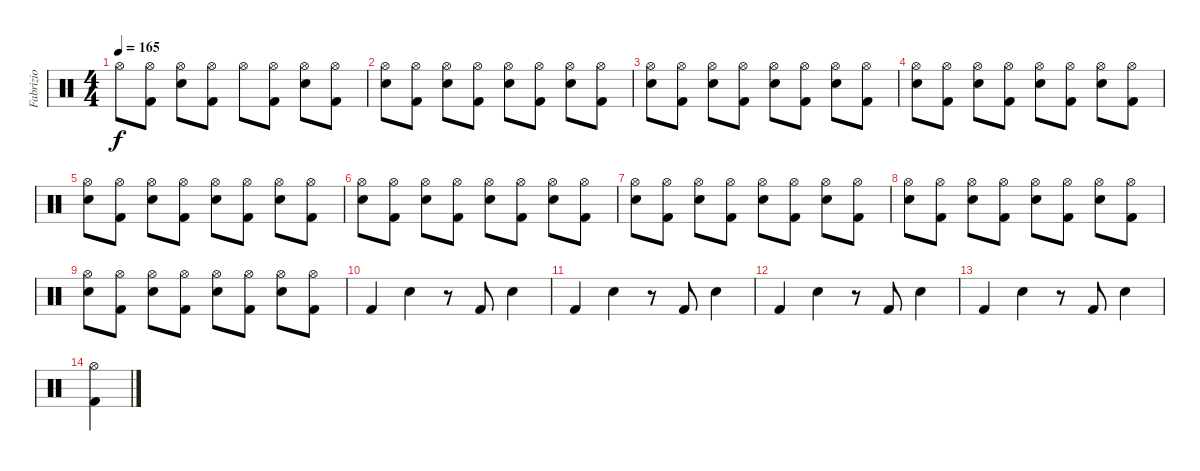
\track ("Fabrizio" "Fabrizio") {instrument percussion}
\staff {score}
\articulation defaults
\ts (4 4)
\tempo 165
\clef neutral
\ks c "Hi-Hat (open)".8{dy f}
("Hi-Hat (open)" "Kick (hit) 2").8 ("Hi-Hat (open)" "Snare (hit) 2").8 ("Hi-Hat (open)" "Kick (hit) 2").8 "Hi-Hat (open)".8 ("Hi-Hat (open)" "Kick (hit) 2").8 ("Hi-Hat (open)" "Snare (hit) 2").8 ("Hi-Hat (open)" "Kick (hit) 2").8 |
("Snare (hit) 2" "Hi-Hat (open)").8 ("Kick (hit) 2" "Hi-Hat (open)").8 ("Snare (hit) 2" "Hi-Hat (open)").8 ("Kick (hit) 2" "Hi-Hat (open)").8 ("Hi-Hat (open)" "Snare (hit) 2").8 ("Hi-Hat (open)" "Kick (hit) 2").8 ("Hi-Hat (open)" "Snare (hit) 2").8 ("Hi-Hat (open)" "Kick (hit) 2").8 |
("Hi-Hat (open)" "Snare (hit) 2").8 ("Hi-Hat (open)" "Kick (hit) 2").8 ("Hi-Hat (open)" "Snare (hit) 2").8 ("Hi-Hat (open)" "Kick (hit) 2").8 ("Hi-Hat (open)" "Snare (hit) 2").8 ("Hi-Hat (open)" "Kick (hit) 2").8 ("Hi-Hat (open)" "Snare (hit) 2").8 ("Hi-Hat (open)" "Kick (hit) 2").8 |
("Hi-Hat (open)" "Snare (hit) 2").8 ("Hi-Hat (open)" "Kick (hit) 2").8 ("Hi-Hat (open)" "Snare (hit) 2").8 ("Hi-Hat (open)" "Kick (hit) 2").8 ("Hi-Hat (open)" "Snare (hit) 2").8 ("Hi-Hat (open)" "Kick (hit) 2").8 ("Hi-Hat (open)" "Snare (hit) 2").8 ("Hi-Hat (open)" "Kick (hit) 2").8 |
("Hi-Hat (open)" "Snare (hit) 2").8 ("Hi-Hat (open)" "Kick (hit) 2").8 ("Hi-Hat (open)" "Snare (hit) 2").8 ("Hi-Hat (open)" "Kick (hit) 2").8 ("Hi-Hat (open)" "Snare (hit) 2").8 ("Hi-Hat (open)" "Kick (hit) 2").8 ("Hi-Hat (open)" "Snare (hit) 2").8 ("Hi-Hat (open)" "Kick (hit) 2").8 |
("Hi-Hat (open)" "Snare (hit) 2").8 ("Hi-Hat (open)" "Kick (hit) 2").8 ("Hi-Hat (open)" "Snare (hit) 2").8 ("Hi-Hat (open)" "Kick (hit) 2").8 ("Hi-Hat (open)" "Snare (hit) 2").8 ("Hi-Hat (open)" "Kick (hit) 2").8 ("Hi-Hat (open)" "Snare (hit) 2").8 ("Hi-Hat (open)" "Kick (hit) 2").8 |
("Hi-Hat (open)" "Snare (hit) 2").8 ("Hi-Hat (open)" "Kick (hit) 2").8 ("Hi-Hat (open)" "Snare (hit) 2").8 ("Hi-Hat (open)" "Kick (hit) 2").8 ("Hi-Hat (open)" "Snare (hit) 2").8 ("Hi-Hat (open)" "Kick (hit) 2").8 ("Hi-Hat (open)" "Snare (hit) 2").8 ("Hi-Hat (open)" "Kick (hit) 2").8 |
("Hi-Hat (open)" "Snare (hit) 2").8 ("Hi-Hat (open)" "Kick (hit) 2").8 ("Hi-Hat (open)" "Snare (hit) 2").8 ("Hi-Hat (open)" "Kick (hit) 2").8 ("Hi-Hat (open)" "Snare (hit) 2").8 ("Hi-Hat (open)" "Kick (hit) 2").8 ("Hi-Hat (open)" "Snare (hit) 2").8 ("Hi-Hat (open)" "Kick (hit) 2").8 |
("Hi-Hat (open)" "Snare (hit) 2").8 ("Hi-Hat (open)" "Kick (hit) 2").8 ("Hi-Hat (open)" "Snare (hit) 2").8 ("Hi-Hat (open)" "Kick (hit) 2").8 ("Hi-Hat (open)" "Snare (hit) 2").8 ("Hi-Hat (open)" "Kick (hit) 2").8 ("Hi-Hat (open)" "Snare (hit) 2").8 ("Hi-Hat (open)" "Kick (hit) 2").8 |
"Kick (hit) 2".4 "Snare (hit) 2".4 r.8 "Kick (hit) 2".8 "Snare (hit) 2".4 |
"Kick (hit) 2".4 "Snare (hit) 2".4 r.8 "Kick (hit) 2".8 "Snare (hit) 2".4 |
"Kick (hit) 2".4 "Snare (hit) 2".4 r.8 "Kick (hit) 2".8 "Snare (hit) 2".4 |
"Kick (hit) 2".4 "Snare (hit) 2".4 r.8 "Kick (hit) 2".8 "Snare (hit) 2".4 |
("Kick (hit) 2" "Hi-Hat (open)").4
